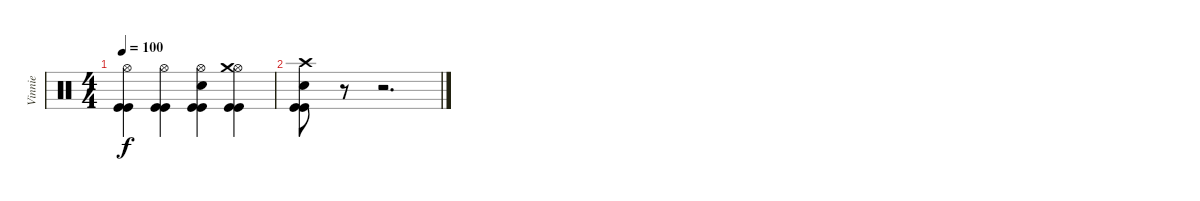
\track ("Vinnie" "Vinnie") {instrument percussion}
\staff {score}
\articulation defaults
\ts (4 4)
\tempo 100
\clef neutral
\ks c
("Hi-Hat (open)" "Kick (hit)" "Kick (hit)").4{dy f} ("Hi-Hat (open)" "Kick (hit)" "Kick (hit)").4 ("Hi-Hat (open)" "Snare (hit) 2" "Kick (hit)" "Kick (hit)").4 ("Hi-Hat (open)" "Crash medium (hit)" "Kick (hit)" "Kick (hit)").4 |
("Crash high (hit)" "Snare (hit) 2" "Kick (hit)" "Kick (hit)").8 r.8 r.2{d}
